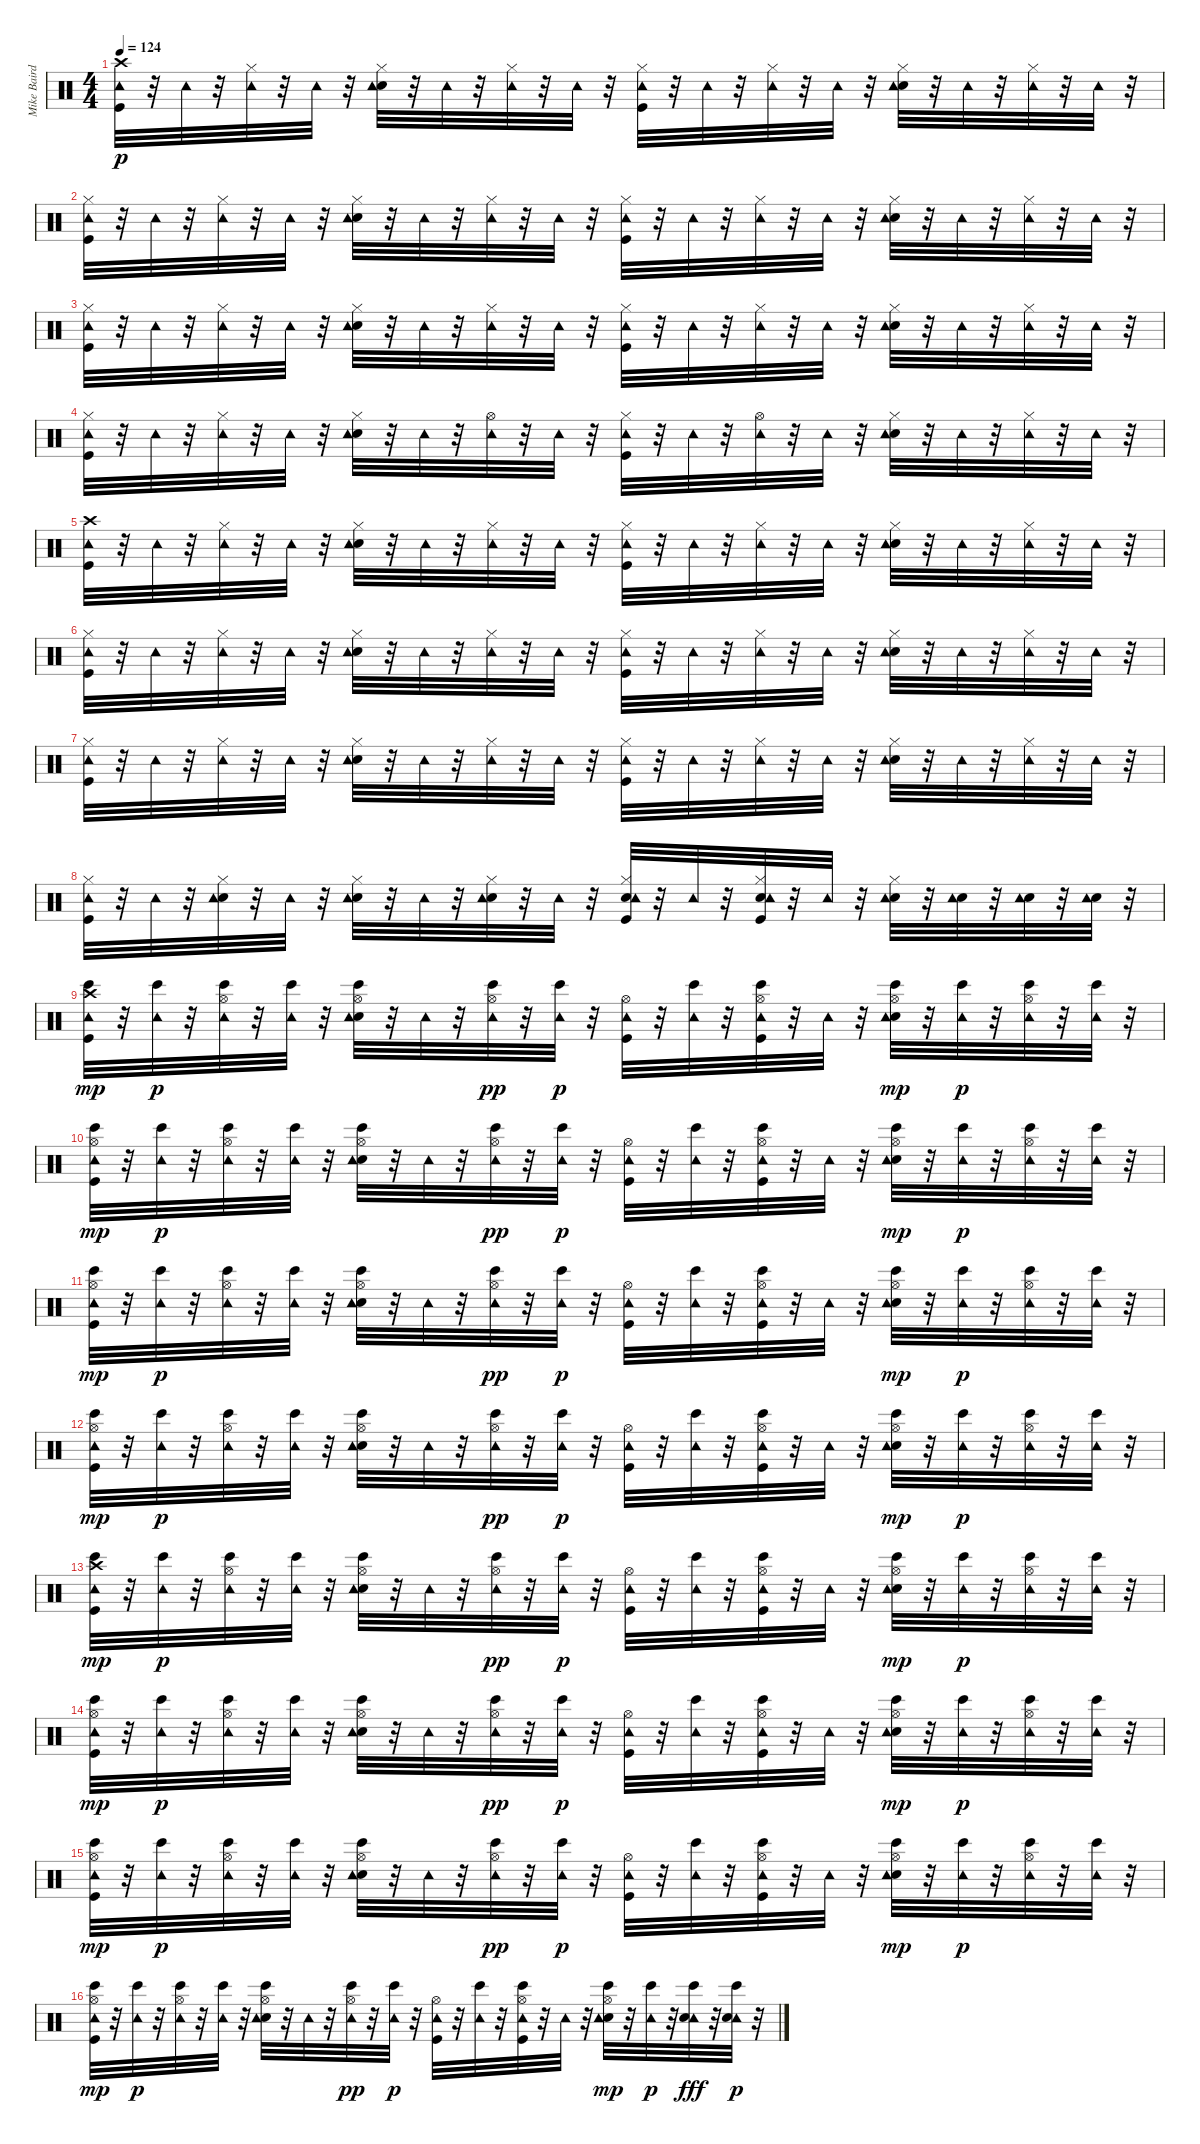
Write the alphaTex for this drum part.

\track ("Mike Baird [drums]" "Mike Baird") {instrument percussion}
\staff {score}
\articulation defaults
\ts (4 4)
\tempo 124
\clef neutral
\ks c
("Kick (hit)" "Crash high (hit)" "Tambourine (hit)").32{dy p} r.32 "Tambourine (hit)".32 r.32 ("Hi-Hat (closed)" "Tambourine (hit)").32 r.32 "Tambourine (hit)".32 r.32 ("Electric Snare (hit)" "Hi-Hat (closed)" "Tambourine (hit)").32 r.32 "Tambourine (hit)".32 r.32 ("Hi-Hat (closed)" "Tambourine (hit)").32 r.32 "Tambourine (hit)".32 r.32 ("Kick (hit)" "Hi-Hat (closed)" "Tambourine (hit)").32 r.32 "Tambourine (hit)".32 r.32 ("Hi-Hat (closed)" "Tambourine (hit)").32 r.32 "Tambourine (hit)".32 r.32 ("Electric Snare (hit)" "Hi-Hat (closed)" "Tambourine (hit)").32 r.32 "Tambourine (hit)".32 r.32 ("Hi-Hat (closed)" "Tambourine (hit)").32 r.32 "Tambourine (hit)".32 r.32 |
("Kick (hit)" "Hi-Hat (closed)" "Tambourine (hit)").32 r.32 "Tambourine (hit)".32 r.32 ("Hi-Hat (closed)" "Tambourine (hit)").32 r.32 "Tambourine (hit)".32 r.32 ("Electric Snare (hit)" "Hi-Hat (closed)" "Tambourine (hit)").32 r.32 "Tambourine (hit)".32 r.32 ("Hi-Hat (closed)" "Tambourine (hit)").32 r.32 "Tambourine (hit)".32 r.32 ("Kick (hit)" "Hi-Hat (closed)" "Tambourine (hit)").32 r.32 "Tambourine (hit)".32 r.32 ("Hi-Hat (closed)" "Tambourine (hit)").32 r.32 "Tambourine (hit)".32 r.32 ("Electric Snare (hit)" "Hi-Hat (closed)" "Tambourine (hit)").32 r.32 "Tambourine (hit)".32 r.32 ("Hi-Hat (closed)" "Tambourine (hit)").32 r.32 "Tambourine (hit)".32 r.32 |
("Kick (hit)" "Hi-Hat (closed)" "Tambourine (hit)").32 r.32 "Tambourine (hit)".32 r.32 ("Hi-Hat (closed)" "Tambourine (hit)").32 r.32 "Tambourine (hit)".32 r.32 ("Electric Snare (hit)" "Hi-Hat (closed)" "Tambourine (hit)").32 r.32 "Tambourine (hit)".32 r.32 ("Hi-Hat (closed)" "Tambourine (hit)").32 r.32 "Tambourine (hit)".32 r.32 ("Kick (hit)" "Hi-Hat (closed)" "Tambourine (hit)").32 r.32 "Tambourine (hit)".32 r.32 ("Hi-Hat (closed)" "Tambourine (hit)").32 r.32 "Tambourine (hit)".32 r.32 ("Electric Snare (hit)" "Hi-Hat (closed)" "Tambourine (hit)").32 r.32 "Tambourine (hit)".32 r.32 ("Hi-Hat (closed)" "Tambourine (hit)").32 r.32 "Tambourine (hit)".32 r.32 |
("Kick (hit)" "Hi-Hat (closed)" "Tambourine (hit)").32 r.32 "Tambourine (hit)".32 r.32 ("Hi-Hat (closed)" "Tambourine (hit)").32 r.32 "Tambourine (hit)".32 r.32 ("Electric Snare (hit)" "Hi-Hat (closed)" "Tambourine (hit)").32 r.32 "Tambourine (hit)".32 r.32 ("Hi-Hat (open)" "Tambourine (hit)").32 r.32 "Tambourine (hit)".32 r.32 ("Kick (hit)" "Hi-Hat (closed)" "Tambourine (hit)").32 r.32 "Tambourine (hit)".32 r.32 ("Hi-Hat (open)" "Tambourine (hit)").32 r.32 "Tambourine (hit)".32 r.32 ("Electric Snare (hit)" "Hi-Hat (closed)" "Tambourine (hit)").32 r.32 "Tambourine (hit)".32 r.32 ("Hi-Hat (closed)" "Tambourine (hit)").32 r.32 "Tambourine (hit)".32 r.32 |
("Kick (hit)" "Crash high (hit)" "Tambourine (hit)").32 r.32 "Tambourine (hit)".32 r.32 ("Hi-Hat (closed)" "Tambourine (hit)").32 r.32 "Tambourine (hit)".32 r.32 ("Electric Snare (hit)" "Hi-Hat (closed)" "Tambourine (hit)").32 r.32 "Tambourine (hit)".32 r.32 ("Hi-Hat (closed)" "Tambourine (hit)").32 r.32 "Tambourine (hit)".32 r.32 ("Kick (hit)" "Hi-Hat (closed)" "Tambourine (hit)").32 r.32 "Tambourine (hit)".32 r.32 ("Hi-Hat (closed)" "Tambourine (hit)").32 r.32 "Tambourine (hit)".32 r.32 ("Electric Snare (hit)" "Hi-Hat (closed)" "Tambourine (hit)").32 r.32 "Tambourine (hit)".32 r.32 ("Hi-Hat (closed)" "Tambourine (hit)").32 r.32 "Tambourine (hit)".32 r.32 |
("Kick (hit)" "Hi-Hat (closed)" "Tambourine (hit)").32 r.32 "Tambourine (hit)".32 r.32 ("Hi-Hat (closed)" "Tambourine (hit)").32 r.32 "Tambourine (hit)".32 r.32 ("Electric Snare (hit)" "Hi-Hat (closed)" "Tambourine (hit)").32 r.32 "Tambourine (hit)".32 r.32 ("Hi-Hat (closed)" "Tambourine (hit)").32 r.32 "Tambourine (hit)".32 r.32 ("Kick (hit)" "Hi-Hat (closed)" "Tambourine (hit)").32 r.32 "Tambourine (hit)".32 r.32 ("Hi-Hat (closed)" "Tambourine (hit)").32 r.32 "Tambourine (hit)".32 r.32 ("Electric Snare (hit)" "Hi-Hat (closed)" "Tambourine (hit)").32 r.32 "Tambourine (hit)".32 r.32 ("Hi-Hat (closed)" "Tambourine (hit)").32 r.32 "Tambourine (hit)".32 r.32 |
("Kick (hit)" "Hi-Hat (closed)" "Tambourine (hit)").32 r.32 "Tambourine (hit)".32 r.32 ("Hi-Hat (closed)" "Tambourine (hit)").32 r.32 "Tambourine (hit)".32 r.32 ("Electric Snare (hit)" "Hi-Hat (closed)" "Tambourine (hit)").32 r.32 "Tambourine (hit)".32 r.32 ("Hi-Hat (closed)" "Tambourine (hit)").32 r.32 "Tambourine (hit)".32 r.32 ("Kick (hit)" "Hi-Hat (closed)" "Tambourine (hit)").32 r.32 "Tambourine (hit)".32 r.32 ("Hi-Hat (closed)" "Tambourine (hit)").32 r.32 "Tambourine (hit)".32 r.32 ("Electric Snare (hit)" "Hi-Hat (closed)" "Tambourine (hit)").32 r.32 "Tambourine (hit)".32 r.32 ("Hi-Hat (closed)" "Tambourine (hit)").32 r.32 "Tambourine (hit)".32 r.32 |
("Kick (hit)" "Hi-Hat (closed)" "Tambourine (hit)").32 r.32 "Tambourine (hit)".32 r.32 ("Electric Snare (hit)" "Hi-Hat (closed)" "Tambourine (hit)").32 r.32 "Tambourine (hit)".32 r.32 ("Electric Snare (hit)" "Hi-Hat (closed)" "Tambourine (hit)").32 r.32 "Tambourine (hit)".32 r.32 ("Electric Snare (hit)" "Hi-Hat (closed)" "Tambourine (hit)").32 r.32 "Tambourine (hit)".32 r.32 ("Kick (hit)" "Electric Snare (hit)" "Hi-Hat (closed)" "Tambourine (hit)").32 r.32 "Tambourine (hit)".32 r.32 ("Kick (hit)" "Electric Snare (hit)" "Hi-Hat (closed)" "Tambourine (hit)").32 r.32 "Tambourine (hit)".32 r.32 ("Electric Snare (hit)" "Hi-Hat (closed)" "Tambourine (hit)").32 r.32 ("Electric Snare (hit)" "Tambourine (hit)").32 r.32 ("Electric Snare (hit)" "Tambourine (hit)").32 r.32 ("Electric Snare (hit)" "Tambourine (hit)").32 r.32 |
("Bongo High (hit)" "Kick (hit)" "Crash high (hit)" "Tambourine (hit)").32{dy mp} r.32 ("Tambourine (hit)" "Bongo High (hit)").32{dy p} r.32 ("Hi-Hat (open)" "Tambourine (hit)" "Bongo High (hit)").32 r.32 ("Tambourine (hit)" "Bongo High (hit)").32 r.32 ("Electric Snare (hit)" "Hi-Hat (open)" "Bongo High (hit)" "Tambourine (hit)").32 r.32 "Tambourine (hit)".32 r.32 ("Hi-Hat (open)" "Tambourine (hit)" "Bongo High (hit)").32{dy pp} r.32 ("Bongo High (hit)" "Tambourine (hit)").32{dy p} r.32 ("Kick (hit)" "Hi-Hat (open)" "Tambourine (hit)").32 r.32 ("Bongo High (hit)" "Tambourine (hit)").32 r.32 ("Bongo High (hit)" "Kick (hit)" "Hi-Hat (open)" "Tambourine (hit)").32 r.32 "Tambourine (hit)".32 r.32 ("Bongo High (hit)" "Electric Snare (hit)" "Hi-Hat (open)" "Tambourine (hit)").32{dy mp} r.32 ("Tambourine (hit)" "Bongo High (hit)").32{dy p} r.32 ("Bongo High (hit)" "Hi-Hat (open)" "Tambourine (hit)").32 r.32 ("Tambourine (hit)" "Bongo High (hit)").32 r.32 |
("Bongo High (hit)" "Kick (hit)" "Hi-Hat (open)" "Tambourine (hit)").32{dy mp} r.32 ("Tambourine (hit)" "Bongo High (hit)").32{dy p} r.32 ("Hi-Hat (open)" "Tambourine (hit)" "Bongo High (hit)").32 r.32 ("Tambourine (hit)" "Bongo High (hit)").32 r.32 ("Electric Snare (hit)" "Hi-Hat (open)" "Bongo High (hit)" "Tambourine (hit)").32 r.32 "Tambourine (hit)".32 r.32 ("Hi-Hat (open)" "Tambourine (hit)" "Bongo High (hit)").32{dy pp} r.32 ("Bongo High (hit)" "Tambourine (hit)").32{dy p} r.32 ("Kick (hit)" "Hi-Hat (open)" "Tambourine (hit)").32 r.32 ("Bongo High (hit)" "Tambourine (hit)").32 r.32 ("Bongo High (hit)" "Kick (hit)" "Hi-Hat (open)" "Tambourine (hit)").32 r.32 "Tambourine (hit)".32 r.32 ("Bongo High (hit)" "Electric Snare (hit)" "Hi-Hat (open)" "Tambourine (hit)").32{dy mp} r.32 ("Tambourine (hit)" "Bongo High (hit)").32{dy p} r.32 ("Bongo High (hit)" "Hi-Hat (open)" "Tambourine (hit)").32 r.32 ("Tambourine (hit)" "Bongo High (hit)").32 r.32 |
("Bongo High (hit)" "Kick (hit)" "Hi-Hat (open)" "Tambourine (hit)").32{dy mp} r.32 ("Tambourine (hit)" "Bongo High (hit)").32{dy p} r.32 ("Hi-Hat (open)" "Tambourine (hit)" "Bongo High (hit)").32 r.32 ("Tambourine (hit)" "Bongo High (hit)").32 r.32 ("Electric Snare (hit)" "Hi-Hat (open)" "Bongo High (hit)" "Tambourine (hit)").32 r.32 "Tambourine (hit)".32 r.32 ("Hi-Hat (open)" "Tambourine (hit)" "Bongo High (hit)").32{dy pp} r.32 ("Bongo High (hit)" "Tambourine (hit)").32{dy p} r.32 ("Kick (hit)" "Hi-Hat (open)" "Tambourine (hit)").32 r.32 ("Bongo High (hit)" "Tambourine (hit)").32 r.32 ("Bongo High (hit)" "Kick (hit)" "Hi-Hat (open)" "Tambourine (hit)").32 r.32 "Tambourine (hit)".32 r.32 ("Bongo High (hit)" "Electric Snare (hit)" "Hi-Hat (open)" "Tambourine (hit)").32{dy mp} r.32 ("Tambourine (hit)" "Bongo High (hit)").32{dy p} r.32 ("Bongo High (hit)" "Hi-Hat (open)" "Tambourine (hit)").32 r.32 ("Tambourine (hit)" "Bongo High (hit)").32 r.32 |
("Bongo High (hit)" "Kick (hit)" "Hi-Hat (open)" "Tambourine (hit)").32{dy mp} r.32 ("Tambourine (hit)" "Bongo High (hit)").32{dy p} r.32 ("Hi-Hat (open)" "Tambourine (hit)" "Bongo High (hit)").32 r.32 ("Tambourine (hit)" "Bongo High (hit)").32 r.32 ("Electric Snare (hit)" "Hi-Hat (open)" "Bongo High (hit)" "Tambourine (hit)").32 r.32 "Tambourine (hit)".32 r.32 ("Hi-Hat (open)" "Tambourine (hit)" "Bongo High (hit)").32{dy pp} r.32 ("Bongo High (hit)" "Tambourine (hit)").32{dy p} r.32 ("Kick (hit)" "Hi-Hat (open)" "Tambourine (hit)").32 r.32 ("Bongo High (hit)" "Tambourine (hit)").32 r.32 ("Bongo High (hit)" "Kick (hit)" "Hi-Hat (open)" "Tambourine (hit)").32 r.32 "Tambourine (hit)".32 r.32 ("Bongo High (hit)" "Electric Snare (hit)" "Hi-Hat (open)" "Tambourine (hit)").32{dy mp} r.32 ("Tambourine (hit)" "Bongo High (hit)").32{dy p} r.32 ("Bongo High (hit)" "Hi-Hat (open)" "Tambourine (hit)").32 r.32 ("Tambourine (hit)" "Bongo High (hit)").32 r.32 |
("Bongo High (hit)" "Kick (hit)" "Crash high (hit)" "Tambourine (hit)").32{dy mp} r.32 ("Tambourine (hit)" "Bongo High (hit)").32{dy p} r.32 ("Hi-Hat (open)" "Tambourine (hit)" "Bongo High (hit)").32 r.32 ("Tambourine (hit)" "Bongo High (hit)").32 r.32 ("Electric Snare (hit)" "Hi-Hat (open)" "Bongo High (hit)" "Tambourine (hit)").32 r.32 "Tambourine (hit)".32 r.32 ("Hi-Hat (open)" "Tambourine (hit)" "Bongo High (hit)").32{dy pp} r.32 ("Bongo High (hit)" "Tambourine (hit)").32{dy p} r.32 ("Kick (hit)" "Hi-Hat (open)" "Tambourine (hit)").32 r.32 ("Bongo High (hit)" "Tambourine (hit)").32 r.32 ("Bongo High (hit)" "Kick (hit)" "Hi-Hat (open)" "Tambourine (hit)").32 r.32 "Tambourine (hit)".32 r.32 ("Bongo High (hit)" "Electric Snare (hit)" "Hi-Hat (open)" "Tambourine (hit)").32{dy mp} r.32 ("Tambourine (hit)" "Bongo High (hit)").32{dy p} r.32 ("Bongo High (hit)" "Hi-Hat (open)" "Tambourine (hit)").32 r.32 ("Tambourine (hit)" "Bongo High (hit)").32 r.32 |
("Bongo High (hit)" "Kick (hit)" "Hi-Hat (open)" "Tambourine (hit)").32{dy mp} r.32 ("Tambourine (hit)" "Bongo High (hit)").32{dy p} r.32 ("Hi-Hat (open)" "Tambourine (hit)" "Bongo High (hit)").32 r.32 ("Tambourine (hit)" "Bongo High (hit)").32 r.32 ("Electric Snare (hit)" "Hi-Hat (open)" "Bongo High (hit)" "Tambourine (hit)").32 r.32 "Tambourine (hit)".32 r.32 ("Hi-Hat (open)" "Tambourine (hit)" "Bongo High (hit)").32{dy pp} r.32 ("Bongo High (hit)" "Tambourine (hit)").32{dy p} r.32 ("Kick (hit)" "Hi-Hat (open)" "Tambourine (hit)").32 r.32 ("Bongo High (hit)" "Tambourine (hit)").32 r.32 ("Bongo High (hit)" "Kick (hit)" "Hi-Hat (open)" "Tambourine (hit)").32 r.32 "Tambourine (hit)".32 r.32 ("Bongo High (hit)" "Electric Snare (hit)" "Hi-Hat (open)" "Tambourine (hit)").32{dy mp} r.32 ("Tambourine (hit)" "Bongo High (hit)").32{dy p} r.32 ("Bongo High (hit)" "Hi-Hat (open)" "Tambourine (hit)").32 r.32 ("Tambourine (hit)" "Bongo High (hit)").32 r.32 |
("Bongo High (hit)" "Kick (hit)" "Hi-Hat (open)" "Tambourine (hit)").32{dy mp} r.32 ("Tambourine (hit)" "Bongo High (hit)").32{dy p} r.32 ("Hi-Hat (open)" "Tambourine (hit)" "Bongo High (hit)").32 r.32 ("Tambourine (hit)" "Bongo High (hit)").32 r.32 ("Electric Snare (hit)" "Hi-Hat (open)" "Bongo High (hit)" "Tambourine (hit)").32 r.32 "Tambourine (hit)".32 r.32 ("Hi-Hat (open)" "Tambourine (hit)" "Bongo High (hit)").32{dy pp} r.32 ("Bongo High (hit)" "Tambourine (hit)").32{dy p} r.32 ("Kick (hit)" "Hi-Hat (open)" "Tambourine (hit)").32 r.32 ("Bongo High (hit)" "Tambourine (hit)").32 r.32 ("Bongo High (hit)" "Kick (hit)" "Hi-Hat (open)" "Tambourine (hit)").32 r.32 "Tambourine (hit)".32 r.32 ("Bongo High (hit)" "Electric Snare (hit)" "Hi-Hat (open)" "Tambourine (hit)").32{dy mp} r.32 ("Tambourine (hit)" "Bongo High (hit)").32{dy p} r.32 ("Bongo High (hit)" "Hi-Hat (open)" "Tambourine (hit)").32 r.32 ("Tambourine (hit)" "Bongo High (hit)").32 r.32 |
("Bongo High (hit)" "Kick (hit)" "Hi-Hat (open)" "Tambourine (hit)").32{dy mp} r.32 ("Tambourine (hit)" "Bongo High (hit)").32{dy p} r.32 ("Hi-Hat (open)" "Tambourine (hit)" "Bongo High (hit)").32 r.32 ("Tambourine (hit)" "Bongo High (hit)").32 r.32 ("Electric Snare (hit)" "Hi-Hat (open)" "Bongo High (hit)" "Tambourine (hit)").32 r.32 "Tambourine (hit)".32 r.32 ("Hi-Hat (open)" "Tambourine (hit)" "Bongo High (hit)").32{dy pp} r.32 ("Bongo High (hit)" "Tambourine (hit)").32{dy p} r.32 ("Kick (hit)" "Hi-Hat (open)" "Tambourine (hit)").32 r.32 ("Bongo High (hit)" "Tambourine (hit)").32 r.32 ("Bongo High (hit)" "Kick (hit)" "Hi-Hat (open)" "Tambourine (hit)").32 r.32 "Tambourine (hit)".32 r.32 ("Bongo High (hit)" "Electric Snare (hit)" "Hi-Hat (open)" "Tambourine (hit)").32{dy mp} r.32 ("Tambourine (hit)" "Bongo High (hit)").32{dy p} r.32 ("Bongo High (hit)" "Tambourine (hit)" "Electric Snare (hit)").32{dy fff} r.32 ("Tambourine (hit)" "Bongo High (hit)" "Electric Snare (hit)").32{dy p} r.32
